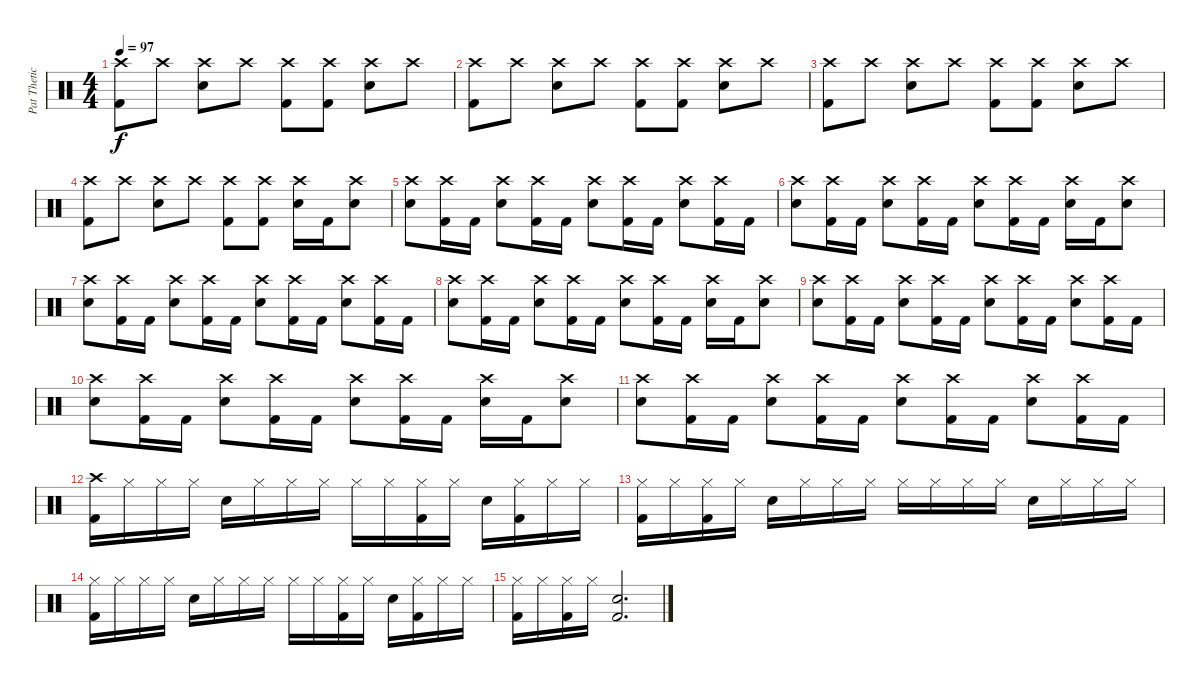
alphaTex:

\track ("Pat Thetic" "Pat Thetic") {instrument percussion}
\staff {score}
\articulation defaults
\ts (4 4)
\tempo 97
\clef neutral
\ks c
("Crash high (hit)" "Kick (hit) 2").8{dy f} "Crash high (hit)".8 ("Crash high (hit)" "Electric Snare (hit)").8 "Crash high (hit)".8 ("Crash high (hit)" "Kick (hit) 2").8 ("Crash high (hit)" "Kick (hit) 2").8 ("Crash high (hit)" "Electric Snare (hit)").8 "Crash high (hit)".8 |
("Crash high (hit)" "Kick (hit) 2").8 "Crash high (hit)".8 ("Crash high (hit)" "Electric Snare (hit)").8 "Crash high (hit)".8 ("Crash high (hit)" "Kick (hit) 2").8 ("Crash high (hit)" "Kick (hit) 2").8 ("Crash high (hit)" "Electric Snare (hit)").8 "Crash high (hit)".8 |
("Crash high (hit)" "Kick (hit) 2").8 "Crash high (hit)".8 ("Crash high (hit)" "Electric Snare (hit)").8 "Crash high (hit)".8 ("Crash high (hit)" "Kick (hit) 2").8 ("Crash high (hit)" "Kick (hit) 2").8 ("Crash high (hit)" "Electric Snare (hit)").8 "Crash high (hit)".8 |
("Crash high (hit)" "Kick (hit) 2").8 "Crash high (hit)".8 ("Crash high (hit)" "Electric Snare (hit)").8 "Crash high (hit)".8 ("Crash high (hit)" "Kick (hit) 2").8 ("Crash high (hit)" "Kick (hit) 2").8 ("Crash high (hit)" "Electric Snare (hit)").16 "Kick (hit) 2".16 ("Crash high (hit)" "Electric Snare (hit)").8 |
("Crash high (hit)" "Electric Snare (hit)").8 ("Crash high (hit)" "Kick (hit) 2").16 "Kick (hit) 2".16 ("Crash high (hit)" "Electric Snare (hit)").8 ("Crash high (hit)" "Kick (hit) 2").16 "Kick (hit) 2".16 ("Crash high (hit)" "Electric Snare (hit)").8 ("Crash high (hit)" "Kick (hit) 2").16 "Kick (hit) 2".16 ("Crash high (hit)" "Electric Snare (hit)").8 ("Crash high (hit)" "Kick (hit) 2").16 "Kick (hit) 2".16 |
("Crash high (hit)" "Electric Snare (hit)").8 ("Crash high (hit)" "Kick (hit) 2").16 "Kick (hit) 2".16 ("Crash high (hit)" "Electric Snare (hit)").8 ("Crash high (hit)" "Kick (hit) 2").16 "Kick (hit) 2".16 ("Crash high (hit)" "Electric Snare (hit)").8 ("Crash high (hit)" "Kick (hit) 2").16 "Kick (hit) 2".16 ("Crash high (hit)" "Electric Snare (hit)").16 "Kick (hit) 2".16 ("Crash high (hit)" "Electric Snare (hit)").8 |
("Crash high (hit)" "Electric Snare (hit)").8 ("Crash high (hit)" "Kick (hit) 2").16 "Kick (hit) 2".16 ("Crash high (hit)" "Electric Snare (hit)").8 ("Crash high (hit)" "Kick (hit) 2").16 "Kick (hit) 2".16 ("Crash high (hit)" "Electric Snare (hit)").8 ("Crash high (hit)" "Kick (hit) 2").16 "Kick (hit) 2".16 ("Crash high (hit)" "Electric Snare (hit)").8 ("Crash high (hit)" "Kick (hit) 2").16 "Kick (hit) 2".16 |
("Crash high (hit)" "Electric Snare (hit)").8 ("Crash high (hit)" "Kick (hit) 2").16 "Kick (hit) 2".16 ("Crash high (hit)" "Electric Snare (hit)").8 ("Crash high (hit)" "Kick (hit) 2").16 "Kick (hit) 2".16 ("Crash high (hit)" "Electric Snare (hit)").8 ("Crash high (hit)" "Kick (hit) 2").16 "Kick (hit) 2".16 ("Crash high (hit)" "Electric Snare (hit)").16 "Kick (hit) 2".16 ("Crash high (hit)" "Electric Snare (hit)").8 |
("Crash high (hit)" "Electric Snare (hit)").8 ("Crash high (hit)" "Kick (hit) 2").16 "Kick (hit) 2".16 ("Crash high (hit)" "Electric Snare (hit)").8 ("Crash high (hit)" "Kick (hit) 2").16 "Kick (hit) 2".16 ("Crash high (hit)" "Electric Snare (hit)").8 ("Crash high (hit)" "Kick (hit) 2").16 "Kick (hit) 2".16 ("Crash high (hit)" "Electric Snare (hit)").8 ("Crash high (hit)" "Kick (hit) 2").16 "Kick (hit) 2".16 |
("Crash high (hit)" "Electric Snare (hit)").8 ("Crash high (hit)" "Kick (hit) 2").16 "Kick (hit) 2".16 ("Crash high (hit)" "Electric Snare (hit)").8 ("Crash high (hit)" "Kick (hit) 2").16 "Kick (hit) 2".16 ("Crash high (hit)" "Electric Snare (hit)").8 ("Crash high (hit)" "Kick (hit) 2").16 "Kick (hit) 2".16 ("Crash high (hit)" "Electric Snare (hit)").16 "Kick (hit) 2".16 ("Crash high (hit)" "Electric Snare (hit)").8 |
("Crash high (hit)" "Electric Snare (hit)").8 ("Crash high (hit)" "Kick (hit) 2").16 "Kick (hit) 2".16 ("Crash high (hit)" "Electric Snare (hit)").8 ("Crash high (hit)" "Kick (hit) 2").16 "Kick (hit) 2".16 ("Crash high (hit)" "Electric Snare (hit)").8 ("Crash high (hit)" "Kick (hit) 2").16 "Kick (hit) 2".16 ("Crash high (hit)" "Electric Snare (hit)").8 ("Crash high (hit)" "Kick (hit) 2").16 "Kick (hit) 2".16 |
("Crash high (hit)" "Kick (hit) 2").16 "Hi-Hat (closed)".16 "Hi-Hat (closed)".16 "Hi-Hat (closed)".16 "Electric Snare (hit)".16 "Hi-Hat (closed)".16 "Hi-Hat (closed)".16 "Hi-Hat (closed)".16 "Hi-Hat (closed)".16 "Hi-Hat (closed)".16 ("Hi-Hat (closed)" "Kick (hit) 2").16 "Hi-Hat (closed)".16 "Electric Snare (hit)".16 ("Hi-Hat (closed)" "Kick (hit) 2").16 "Hi-Hat (closed)".16 "Hi-Hat (closed)".16 |
("Hi-Hat (closed)" "Kick (hit) 2").16 "Hi-Hat (closed)".16 ("Hi-Hat (closed)" "Kick (hit) 2").16 "Hi-Hat (closed)".16 "Electric Snare (hit)".16 "Hi-Hat (closed)".16 "Hi-Hat (closed)".16 "Hi-Hat (closed)".16 "Hi-Hat (closed)".16 "Hi-Hat (closed)".16 "Hi-Hat (closed)".16 "Hi-Hat (closed)".16 "Electric Snare (hit)".16 "Hi-Hat (closed)".16 "Hi-Hat (closed)".16 "Hi-Hat (closed)".16 |
("Hi-Hat (closed)" "Kick (hit) 2").16 "Hi-Hat (closed)".16 "Hi-Hat (closed)".16 "Hi-Hat (closed)".16 "Electric Snare (hit)".16 "Hi-Hat (closed)".16 "Hi-Hat (closed)".16 "Hi-Hat (closed)".16 "Hi-Hat (closed)".16 "Hi-Hat (closed)".16 ("Hi-Hat (closed)" "Kick (hit) 2").16 "Hi-Hat (closed)".16 "Electric Snare (hit)".16 ("Hi-Hat (closed)" "Kick (hit) 2").16 "Hi-Hat (closed)".16 "Hi-Hat (closed)".16 |
("Hi-Hat (closed)" "Kick (hit) 2").16 "Hi-Hat (closed)".16 ("Hi-Hat (closed)" "Kick (hit) 2").16 "Hi-Hat (closed)".16 ("Electric Snare (hit)" "Kick (hit) 2").2{d}
